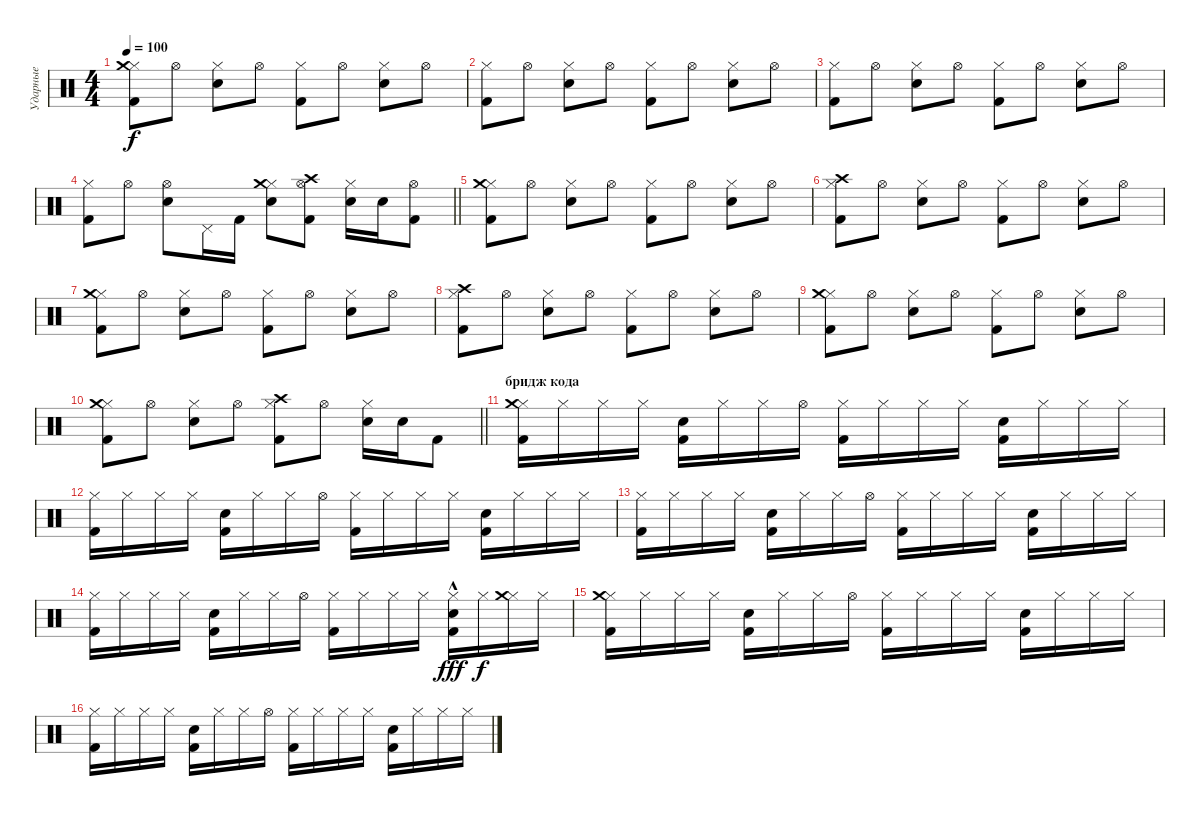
\track ("Ударные" "Ударные") {instrument percussion}
\staff {score}
\articulation defaults
\ts (4 4)
\tempo 100
\clef neutral
\ks c
("Kick (hit) 2" "Hi-Hat (closed)" "Crash medium (hit)").8{dy f} "Hi-Hat (open)".8 ("Snare (hit) 2" "Hi-Hat (closed)").8 "Hi-Hat (open)".8 ("Kick (hit) 2" "Hi-Hat (closed)").8 "Hi-Hat (open)".8 ("Snare (hit) 2" "Hi-Hat (closed)").8 "Hi-Hat (open)".8 |
("Kick (hit) 2" "Hi-Hat (closed)").8 "Hi-Hat (open)".8 ("Snare (hit) 2" "Hi-Hat (closed)").8 "Hi-Hat (open)".8 ("Kick (hit) 2" "Hi-Hat (closed)").8 "Hi-Hat (open)".8 ("Snare (hit) 2" "Hi-Hat (closed)").8 "Hi-Hat (open)".8 |
("Kick (hit) 2" "Hi-Hat (closed)").8 "Hi-Hat (open)".8 ("Snare (hit) 2" "Hi-Hat (closed)").8 "Hi-Hat (open)".8 ("Kick (hit) 2" "Hi-Hat (closed)").8 "Hi-Hat (open)".8 ("Snare (hit) 2" "Hi-Hat (closed)").8 "Hi-Hat (open)".8 |
\barLineRight lightlight
("Kick (hit) 2" "Hi-Hat (closed)").8 "Hi-Hat (open)".8 ("Snare (hit) 2" "Hi-Hat (open)").8 "Pedal Hi-Hat (hit)".16 "Kick (hit) 2".16 ("Snare (hit) 2" "Hi-Hat (closed)" "Crash medium (hit)").8 ("Kick (hit) 2" "Hi-Hat (open)" "Crash high (hit)").8 ("Snare (hit) 2" "Hi-Hat (closed)").16 "Snare (hit) 2".16 ("Kick (hit) 2" "Hi-Hat (open)").8 |
("Kick (hit) 2" "Hi-Hat (closed)" "Crash medium (hit)").8 "Hi-Hat (open)".8 ("Snare (hit) 2" "Hi-Hat (closed)").8 "Hi-Hat (open)".8 ("Kick (hit) 2" "Hi-Hat (closed)").8 "Hi-Hat (open)".8 ("Snare (hit) 2" "Hi-Hat (closed)").8 "Hi-Hat (open)".8 |
("Kick (hit) 2" "Hi-Hat (closed)" "Crash high (hit)").8 "Hi-Hat (open)".8 ("Snare (hit) 2" "Hi-Hat (closed)").8 "Hi-Hat (open)".8 ("Kick (hit) 2" "Hi-Hat (closed)").8 "Hi-Hat (open)".8 ("Snare (hit) 2" "Hi-Hat (closed)").8 "Hi-Hat (open)".8 |
("Kick (hit) 2" "Hi-Hat (closed)" "Crash medium (hit)").8 "Hi-Hat (open)".8 ("Snare (hit) 2" "Hi-Hat (closed)").8 "Hi-Hat (open)".8 ("Kick (hit) 2" "Hi-Hat (closed)").8 "Hi-Hat (open)".8 ("Snare (hit) 2" "Hi-Hat (closed)").8 "Hi-Hat (open)".8 |
("Kick (hit) 2" "Hi-Hat (closed)" "Crash high (hit)").8 "Hi-Hat (open)".8 ("Snare (hit) 2" "Hi-Hat (closed)").8 "Hi-Hat (open)".8 ("Kick (hit) 2" "Hi-Hat (closed)").8 "Hi-Hat (open)".8 ("Snare (hit) 2" "Hi-Hat (closed)").8 "Hi-Hat (open)".8 |
("Kick (hit) 2" "Hi-Hat (closed)" "Crash medium (hit)").8 "Hi-Hat (open)".8 ("Snare (hit) 2" "Hi-Hat (closed)").8 "Hi-Hat (open)".8 ("Kick (hit) 2" "Hi-Hat (closed)").8 "Hi-Hat (open)".8 ("Snare (hit) 2" "Hi-Hat (closed)").8 "Hi-Hat (open)".8 |
\barLineRight lightlight
("Kick (hit) 2" "Hi-Hat (closed)" "Crash medium (hit)").8 "Hi-Hat (open)".8 ("Snare (hit) 2" "Hi-Hat (closed)").8 "Hi-Hat (open)".8 ("Kick (hit) 2" "Hi-Hat (closed)" "Crash high (hit)").8 "Hi-Hat (open)".8 ("Snare (hit) 2" "Hi-Hat (closed)").16 "Snare (hit) 2".16 "Kick (hit) 2".8 |
\section ("" "бридж кода")
("Kick (hit) 2" "Hi-Hat (closed)" "Crash medium (hit)").16 "Hi-Hat (closed)".16 "Hi-Hat (closed)".16 "Hi-Hat (closed)".16 ("Kick (hit) 2" "Snare (hit) 2").16 "Hi-Hat (closed)".16 "Hi-Hat (closed)".16 "Hi-Hat (open)".16 ("Kick (hit) 2" "Hi-Hat (closed)").16 "Hi-Hat (closed)".16 "Hi-Hat (closed)".16 "Hi-Hat (closed)".16 ("Kick (hit) 2" "Snare (hit) 2").16 "Hi-Hat (closed)".16 "Hi-Hat (closed)".16 "Hi-Hat (closed)".16 |
("Kick (hit) 2" "Hi-Hat (closed)").16 "Hi-Hat (closed)".16 "Hi-Hat (closed)".16 "Hi-Hat (closed)".16 ("Kick (hit) 2" "Snare (hit) 2").16 "Hi-Hat (closed)".16 "Hi-Hat (closed)".16 "Hi-Hat (open)".16 ("Kick (hit) 2" "Hi-Hat (closed)").16 "Hi-Hat (closed)".16 "Hi-Hat (closed)".16 "Hi-Hat (closed)".16 ("Kick (hit) 2" "Snare (hit) 2").16 "Hi-Hat (closed)".16 "Hi-Hat (closed)".16 "Hi-Hat (closed)".16 |
("Kick (hit) 2" "Hi-Hat (closed)").16 "Hi-Hat (closed)".16 "Hi-Hat (closed)".16 "Hi-Hat (closed)".16 ("Kick (hit) 2" "Snare (hit) 2").16 "Hi-Hat (closed)".16 "Hi-Hat (closed)".16 "Hi-Hat (open)".16 ("Kick (hit) 2" "Hi-Hat (closed)").16 "Hi-Hat (closed)".16 "Hi-Hat (closed)".16 "Hi-Hat (closed)".16 ("Kick (hit) 2" "Snare (hit) 2").16 "Hi-Hat (closed)".16 "Hi-Hat (closed)".16 "Hi-Hat (closed)".16 |
("Kick (hit) 2" "Hi-Hat (closed)").16 "Hi-Hat (closed)".16 "Hi-Hat (closed)".16 "Hi-Hat (closed)".16 ("Kick (hit) 2" "Snare (hit) 2").16 "Hi-Hat (closed)".16 "Hi-Hat (closed)".16 "Hi-Hat (open)".16 ("Kick (hit) 2" "Hi-Hat (closed)").16 "Hi-Hat (closed)".16 "Hi-Hat (closed)".16 "Hi-Hat (closed)".16 ("Kick (hit) 2" "Snare (hit) 2" "Hi-Hat (closed)"{hac}).16{dy fff} "Hi-Hat (closed)".16{dy f} ("Hi-Hat (closed)" "Crash medium (hit)").16 "Hi-Hat (closed)".16 |
("Kick (hit) 2" "Hi-Hat (closed)" "Crash medium (hit)").16 "Hi-Hat (closed)".16 "Hi-Hat (closed)".16 "Hi-Hat (closed)".16 ("Kick (hit) 2" "Snare (hit) 2").16 "Hi-Hat (closed)".16 "Hi-Hat (closed)".16 "Hi-Hat (open)".16 ("Kick (hit) 2" "Hi-Hat (closed)").16 "Hi-Hat (closed)".16 "Hi-Hat (closed)".16 "Hi-Hat (closed)".16 ("Kick (hit) 2" "Snare (hit) 2").16 "Hi-Hat (closed)".16 "Hi-Hat (closed)".16 "Hi-Hat (closed)".16 |
("Kick (hit) 2" "Hi-Hat (closed)").16 "Hi-Hat (closed)".16 "Hi-Hat (closed)".16 "Hi-Hat (closed)".16 ("Kick (hit) 2" "Snare (hit) 2").16 "Hi-Hat (closed)".16 "Hi-Hat (closed)".16 "Hi-Hat (open)".16 ("Kick (hit) 2" "Hi-Hat (closed)").16 "Hi-Hat (closed)".16 "Hi-Hat (closed)".16 "Hi-Hat (closed)".16 ("Kick (hit) 2" "Snare (hit) 2").16 "Hi-Hat (closed)".16 "Hi-Hat (closed)".16 "Hi-Hat (closed)".16
